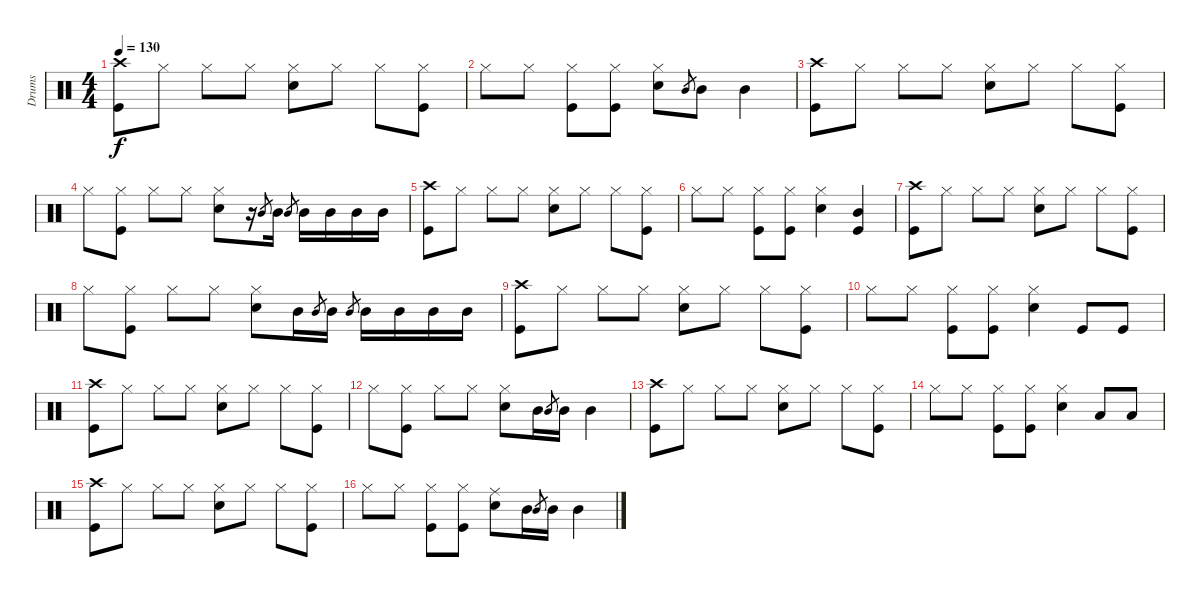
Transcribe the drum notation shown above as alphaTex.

\track ("Drums" "Drums") {instrument percussion}
\staff {score}
\articulation defaults
\ts (4 4)
\tempo 130
\clef neutral
\ks c
("Crash high (hit)" "Kick (hit)").8{dy f} "Hi-Hat (closed)".8 "Hi-Hat (closed)".8 "Hi-Hat (closed)".8 ("Hi-Hat (closed)" "Snare (hit) 2").8 "Hi-Hat (closed)".8 "Hi-Hat (closed)".8 ("Hi-Hat (closed)" "Kick (hit)").8 |
"Hi-Hat (closed)".8 "Hi-Hat (closed)".8 ("Hi-Hat (closed)" "Kick (hit)").8 ("Hi-Hat (closed)" "Kick (hit)").8 ("Hi-Hat (closed)" "Snare (hit) 2").8 "Mid Tom (hit)".8{gr} "Mid Tom (hit)".8 "Mid Tom (hit)".4 |
("Crash high (hit)" "Kick (hit)").8 "Hi-Hat (closed)".8 "Hi-Hat (closed)".8 "Hi-Hat (closed)".8 ("Hi-Hat (closed)" "Snare (hit) 2").8 "Hi-Hat (closed)".8 "Hi-Hat (closed)".8 ("Hi-Hat (closed)" "Kick (hit)").8 |
"Hi-Hat (closed)".8 ("Hi-Hat (closed)" "Kick (hit)").8 "Hi-Hat (closed)".8 "Hi-Hat (closed)".8 ("Hi-Hat (closed)" "Snare (hit) 2").8 r.16 "Mid Tom (hit)".8{gr} "Mid Tom (hit)".16 "Mid Tom (hit)".8{gr} "Mid Tom (hit)".16 "Mid Tom (hit)".16 "Mid Tom (hit)".16 "Mid Tom (hit)".16 |
("Crash high (hit)" "Kick (hit)").8 "Hi-Hat (closed)".8 "Hi-Hat (closed)".8 "Hi-Hat (closed)".8 ("Hi-Hat (closed)" "Snare (hit) 2").8 "Hi-Hat (closed)".8 "Hi-Hat (closed)".8 ("Hi-Hat (closed)" "Kick (hit)").8 |
"Hi-Hat (closed)".8 "Hi-Hat (closed)".8 ("Hi-Hat (closed)" "Kick (hit)").8 ("Hi-Hat (closed)" "Kick (hit)").8 ("Hi-Hat (closed)" "Snare (hit) 2").4 ("Mid Tom (hit)" "Kick (hit)").4 |
("Crash high (hit)" "Kick (hit)").8 "Hi-Hat (closed)".8 "Hi-Hat (closed)".8 "Hi-Hat (closed)".8 ("Hi-Hat (closed)" "Snare (hit) 2").8 "Hi-Hat (closed)".8 "Hi-Hat (closed)".8 ("Hi-Hat (closed)" "Kick (hit)").8 |
"Hi-Hat (closed)".8 ("Hi-Hat (closed)" "Kick (hit)").8 "Hi-Hat (closed)".8 "Hi-Hat (closed)".8 ("Hi-Hat (closed)" "Snare (hit) 2").8 "Mid Tom (hit)".16 "Mid Tom (hit)".8{gr} "Mid Tom (hit)".16 "Mid Tom (hit)".8{gr} "Mid Tom (hit)".16 "Mid Tom (hit)".16 "Mid Tom (hit)".16 "Mid Tom (hit)".16 |
("Crash high (hit)" "Kick (hit)").8 "Hi-Hat (closed)".8 "Hi-Hat (closed)".8 "Hi-Hat (closed)".8 ("Hi-Hat (closed)" "Snare (hit) 2").8 "Hi-Hat (closed)".8 "Hi-Hat (closed)".8 ("Hi-Hat (closed)" "Kick (hit)").8 |
"Hi-Hat (closed)".8 "Hi-Hat (closed)".8 ("Hi-Hat (closed)" "Kick (hit)").8 ("Hi-Hat (closed)" "Kick (hit)").8 ("Hi-Hat (closed)" "Snare (hit) 2").4 "Kick (hit)".8 "Kick (hit)".8 |
("Crash high (hit)" "Kick (hit)").8 "Hi-Hat (closed)".8 "Hi-Hat (closed)".8 "Hi-Hat (closed)".8 ("Hi-Hat (closed)" "Snare (hit) 2").8 "Hi-Hat (closed)".8 "Hi-Hat (closed)".8 ("Hi-Hat (closed)" "Kick (hit)").8 |
"Hi-Hat (closed)".8 ("Hi-Hat (closed)" "Kick (hit)").8 "Hi-Hat (closed)".8 "Hi-Hat (closed)".8 ("Hi-Hat (closed)" "Snare (hit) 2").8 "Mid Tom (hit)".16 "Mid Tom (hit)".8{gr} "Mid Tom (hit)".16 "Mid Tom (hit)".4 |
("Crash high (hit)" "Kick (hit)").8 "Hi-Hat (closed)".8 "Hi-Hat (closed)".8 "Hi-Hat (closed)".8 ("Hi-Hat (closed)" "Snare (hit) 2").8 "Hi-Hat (closed)".8 "Hi-Hat (closed)".8 ("Hi-Hat (closed)" "Kick (hit)").8 |
"Hi-Hat (closed)".8 "Hi-Hat (closed)".8 ("Hi-Hat (closed)" "Kick (hit)").8 ("Hi-Hat (closed)" "Kick (hit)").8 ("Hi-Hat (closed)" "Snare (hit) 2").4 "Low Tom (hit)".8 "Low Tom (hit)".8 |
("Crash high (hit)" "Kick (hit)").8 "Hi-Hat (closed)".8 "Hi-Hat (closed)".8 "Hi-Hat (closed)".8 ("Hi-Hat (closed)" "Snare (hit) 2").8 "Hi-Hat (closed)".8 "Hi-Hat (closed)".8 ("Hi-Hat (closed)" "Kick (hit)").8 |
"Hi-Hat (closed)".8 "Hi-Hat (closed)".8 ("Hi-Hat (closed)" "Kick (hit)").8 ("Hi-Hat (closed)" "Kick (hit)").8 ("Ride (middle)" "Snare (hit) 2").8 "Mid Tom (hit)".16 "Mid Tom (hit)".8{gr} "Mid Tom (hit)".16 "Mid Tom (hit)".4
